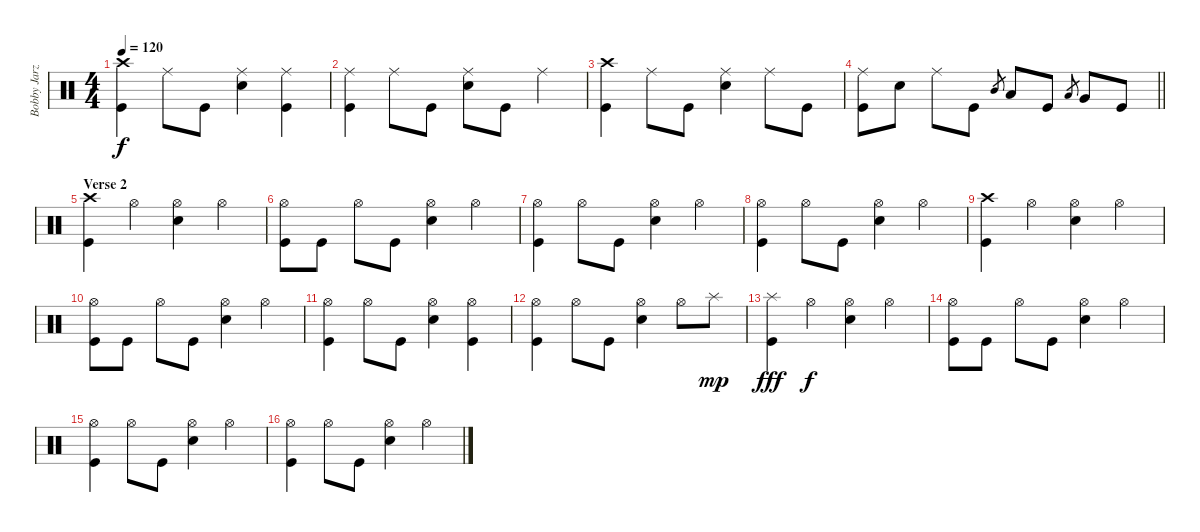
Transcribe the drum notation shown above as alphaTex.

\track ("Bobby Jarzombek" "Bobby Jarz") {instrument percussion}
\staff {score}
\articulation defaults
\ts (4 4)
\tempo 120
\clef neutral
\ks c
("Crash high (hit)" "Kick (hit)").4{dy f} "Ride (middle)".8 "Kick (hit)".8 ("Ride (middle)" "Electric Snare (hit)").4 ("Ride (middle)" "Kick (hit)").4 |
("Ride (middle)" "Kick (hit)").4 "Ride (middle)".8 "Kick (hit)".8 ("Ride (middle)" "Electric Snare (hit)").8 "Kick (hit)".8 "Ride (middle)".4 |
("Crash high (hit)" "Kick (hit)").4 "Ride (middle)".8 "Kick (hit)".8 ("Ride (middle)" "Electric Snare (hit)").4 "Ride (middle)".8 "Kick (hit)".8 |
\barLineRight lightlight
("Ride (middle)" "Kick (hit)").8 "Electric Snare (hit)".8 "Ride (middle)".8 "Kick (hit)".8 "Mid Tom (hit)".8{gr} "Low Tom (hit)".8 "Kick (hit)".8 "Low Tom (hit)".8{gr} "Very Low Tom (hit)".8 "Kick (hit)".8 |
\section ("" "Verse 2")
("Crash high (hit)" "Kick (hit)").4 "Hi-Hat (open)".4 ("Hi-Hat (open)" "Electric Snare (hit)").4 "Hi-Hat (open)".4 |
("Hi-Hat (open)" "Kick (hit)").8 "Kick (hit)".8 "Hi-Hat (open)".8 "Kick (hit)".8 ("Hi-Hat (open)" "Electric Snare (hit)").4 "Hi-Hat (open)".4 |
("Hi-Hat (open)" "Kick (hit)").4 "Hi-Hat (open)".8 "Kick (hit)".8 ("Hi-Hat (open)" "Electric Snare (hit)").4 "Hi-Hat (open)".4 |
("Hi-Hat (open)" "Kick (hit)").4 "Hi-Hat (open)".8 "Kick (hit)".8 ("Hi-Hat (open)" "Electric Snare (hit)").4 "Hi-Hat (open)".4 |
("Crash high (hit)" "Kick (hit)").4 "Hi-Hat (open)".4 ("Hi-Hat (open)" "Electric Snare (hit)").4 "Hi-Hat (open)".4 |
("Hi-Hat (open)" "Kick (hit)").8 "Kick (hit)".8 "Hi-Hat (open)".8 "Kick (hit)".8 ("Hi-Hat (open)" "Electric Snare (hit)").4 "Hi-Hat (open)".4 |
("Hi-Hat (open)" "Kick (hit)").4 "Hi-Hat (open)".8 "Kick (hit)".8 ("Hi-Hat (open)" "Electric Snare (hit)").4 ("Hi-Hat (open)" "Kick (hit)").4 |
("Hi-Hat (open)" "Kick (hit)").4 "Hi-Hat (open)".8 "Kick (hit)".8 ("Hi-Hat (open)" "Electric Snare (hit)").4 "Hi-Hat (open)".8 "Splash (hit)".8{dy mp} |
("Splash (hit)" "Kick (hit)").4{dy fff} "Hi-Hat (open)".4{dy f} ("Hi-Hat (open)" "Electric Snare (hit)").4 "Hi-Hat (open)".4 |
("Hi-Hat (open)" "Kick (hit)").8 "Kick (hit)".8 "Hi-Hat (open)".8 "Kick (hit)".8 ("Hi-Hat (open)" "Electric Snare (hit)").4 "Hi-Hat (open)".4 |
("Hi-Hat (open)" "Kick (hit)").4 "Hi-Hat (open)".8 "Kick (hit)".8 ("Hi-Hat (open)" "Electric Snare (hit)").4 "Hi-Hat (open)".4 |
("Hi-Hat (open)" "Kick (hit)").4 "Hi-Hat (open)".8 "Kick (hit)".8 ("Hi-Hat (open)" "Electric Snare (hit)").4 "Hi-Hat (open)".4
